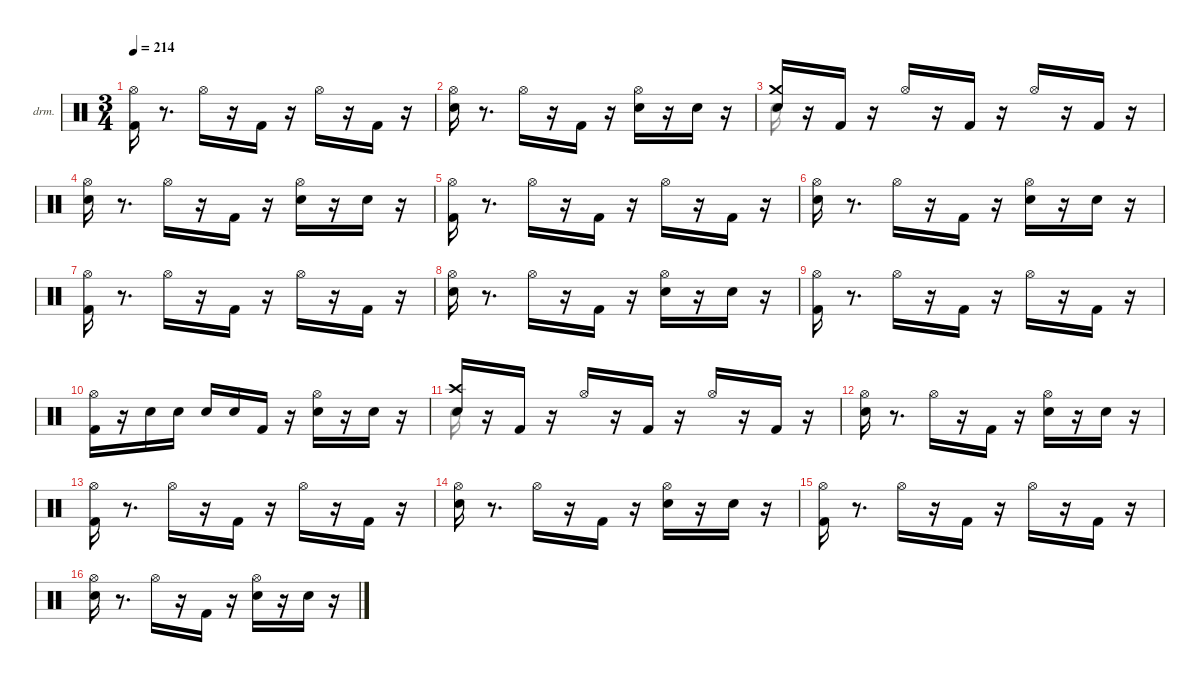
\hideDynamics
\bracketExtendMode nobrackets
\firstSystemTrackNameOrientation horizontal
\otherSystemsTrackNameOrientation horizontal
\track ("EZdrummer 3" "drm.") {instrument percussion}
\staff {score}
\articulation defaults
\voice
\ts (3 4)
\tempo 214
\clef neutral
\ks aminor
("Kick (hit) 2" "Hi-Hat (open)"{acc #}).16{dy ff} r.8{d} "Hi-Hat (open)"{acc #}.16{dy mf} r.16 "Kick (hit) 2".16{dy p} r.16 "Hi-Hat (open)"{acc #}.16{dy mp} r.16 "Kick (hit) 2".16{dy mf} r.16 |
("Snare (hit) 2" "Hi-Hat (open)"{acc #}).16{dy ff} r.8{d} "Hi-Hat (open)"{acc #}.16{dy mp} r.16 "Kick (hit) 2".16{dy f} r.16 ("Snare (hit) 2" "Hi-Hat (open)"{acc #}).16{dy mp} r.16 "Snare (hit) 2".16{dy pp} r.16 |
("Snare (hit) 2" "Crash medium (hit)").16{dy ppp} r.16 "Kick (hit) 2".16{dy f} r.16 "Hi-Hat (open)"{acc #}.16{dy mf} r.16 "Kick (hit) 2".16{dy p} r.16 "Hi-Hat (open)"{acc #}.16{dy mp} r.16 "Kick (hit) 2".16{dy mf} r.16 |
("Snare (hit) 2" "Hi-Hat (open)"{acc #}).16{dy ff} r.8{d} "Hi-Hat (open)"{acc #}.16{dy mf} r.16 "Kick (hit) 2".16{dy f} r.16 ("Snare (hit) 2" "Hi-Hat (open)"{acc #}).16{dy mp} r.16 "Snare (hit) 2".16{dy pp} r.16 |
("Kick (hit) 2" "Hi-Hat (open)"{acc #}).16{dy ff} r.8{d} "Hi-Hat (open)"{acc #}.16{dy mf} r.16 "Kick (hit) 2".16{dy p} r.16 "Hi-Hat (open)"{acc #}.16{dy mp} r.16 "Kick (hit) 2".16{dy mf} r.16 |
("Snare (hit) 2" "Hi-Hat (open)"{acc #}).16 r.8{d} "Hi-Hat (open)"{acc #}.16{dy mp} r.16 "Kick (hit) 2".16{dy f} r.16 ("Snare (hit) 2" "Hi-Hat (open)"{acc #}).16{dy mf} r.16 "Snare (hit) 2".16{dy pp} r.16 |
("Kick (hit) 2" "Hi-Hat (open)"{acc #}).16{dy ff} r.8{d} "Hi-Hat (open)"{acc #}.16{dy mf} r.16 "Kick (hit) 2".16{dy p} r.16 "Hi-Hat (open)"{acc #}.16{dy mp} r.16 "Kick (hit) 2".16{dy mf} r.16 |
("Snare (hit) 2" "Hi-Hat (open)"{acc #}).16 r.8{d} "Hi-Hat (open)"{acc #}.16 r.16 "Kick (hit) 2".16{dy f} r.16 ("Snare (hit) 2" "Hi-Hat (open)"{acc #}).16{dy mp} r.16 "Snare (hit) 2".16{dy pp} r.16 |
("Kick (hit) 2" "Hi-Hat (open)"{acc #}).16{dy fff} r.8{d} "Hi-Hat (open)"{acc #}.16{dy mf} r.16 "Kick (hit) 2".16{dy p} r.16 "Hi-Hat (open)"{acc #}.16{dy mp} r.16 "Kick (hit) 2".16{dy mf} r.16 |
("Kick (hit) 2" "Hi-Hat (open)"{acc #}).16{dy ff} r.16 "Snare (hit) 2".16{dy f} "Snare (hit) 2".16{dy p} "Snare (hit) 2".16{dy mp} "Snare (hit) 2".16{dy pp} "Kick (hit) 2".16{dy f} r.16 ("Snare (hit) 2" "Hi-Hat (open)"{acc #}).16{dy mp} r.16 "Snare (hit) 2".16{dy pp} r.16 |
("Snare (hit) 2" "Crash high (hit)"{acc #}).16{dy ppp} r.16 "Kick (hit) 2".16{dy f} r.16 "Hi-Hat (open)"{acc #}.16{dy mf} r.16 "Kick (hit) 2".16{dy p} r.16 "Hi-Hat (open)"{acc #}.16{dy mp} r.16 "Kick (hit) 2".16{dy mf} r.16 |
("Snare (hit) 2" "Hi-Hat (open)"{acc #}).16 r.8{d} "Hi-Hat (open)"{acc #}.16 r.16 "Kick (hit) 2".16{dy f} r.16 ("Snare (hit) 2" "Hi-Hat (open)"{acc #}).16{dy mp} r.16 "Snare (hit) 2".16{dy pp} r.16 |
("Kick (hit) 2" "Hi-Hat (open)"{acc #}).16{dy ff} r.8{d} "Hi-Hat (open)"{acc #}.16{dy mf} r.16 "Kick (hit) 2".16{dy p} r.16 "Hi-Hat (open)"{acc #}.16{dy mp} r.16 "Kick (hit) 2".16{dy mf} r.16 |
("Snare (hit) 2" "Hi-Hat (open)"{acc #}).16 r.8{d} "Hi-Hat (open)"{acc #}.16{dy mp} r.16 "Kick (hit) 2".16{dy f} r.16 ("Snare (hit) 2" "Hi-Hat (open)"{acc #}).16{dy mp} r.16 "Snare (hit) 2".16{dy pp} r.16 |
("Kick (hit) 2" "Hi-Hat (open)"{acc #}).16{dy ff} r.8{d} "Hi-Hat (open)"{acc #}.16{dy mf} r.16 "Kick (hit) 2".16{dy p} r.16 "Hi-Hat (open)"{acc #}.16{dy mp} r.16 "Kick (hit) 2".16{dy mf} r.16 |
("Snare (hit) 2" "Hi-Hat (open)"{acc #}).16 r.8{d} "Hi-Hat (open)"{acc #}.16 r.16 "Kick (hit) 2".16{dy f} r.16 ("Snare (hit) 2" "Hi-Hat (open)"{acc #}).16{dy mp} r.16 "Snare (hit) 2".16{dy pp} r.16
\voice
\clef neutral
\ottava regular
\simile none
\ks aminor
|
|
"Snare (hit) 2".16{dy ff} |
|
|
|
|
|
|
|
"Snare (hit) 2".16 |
|
|
|
|
